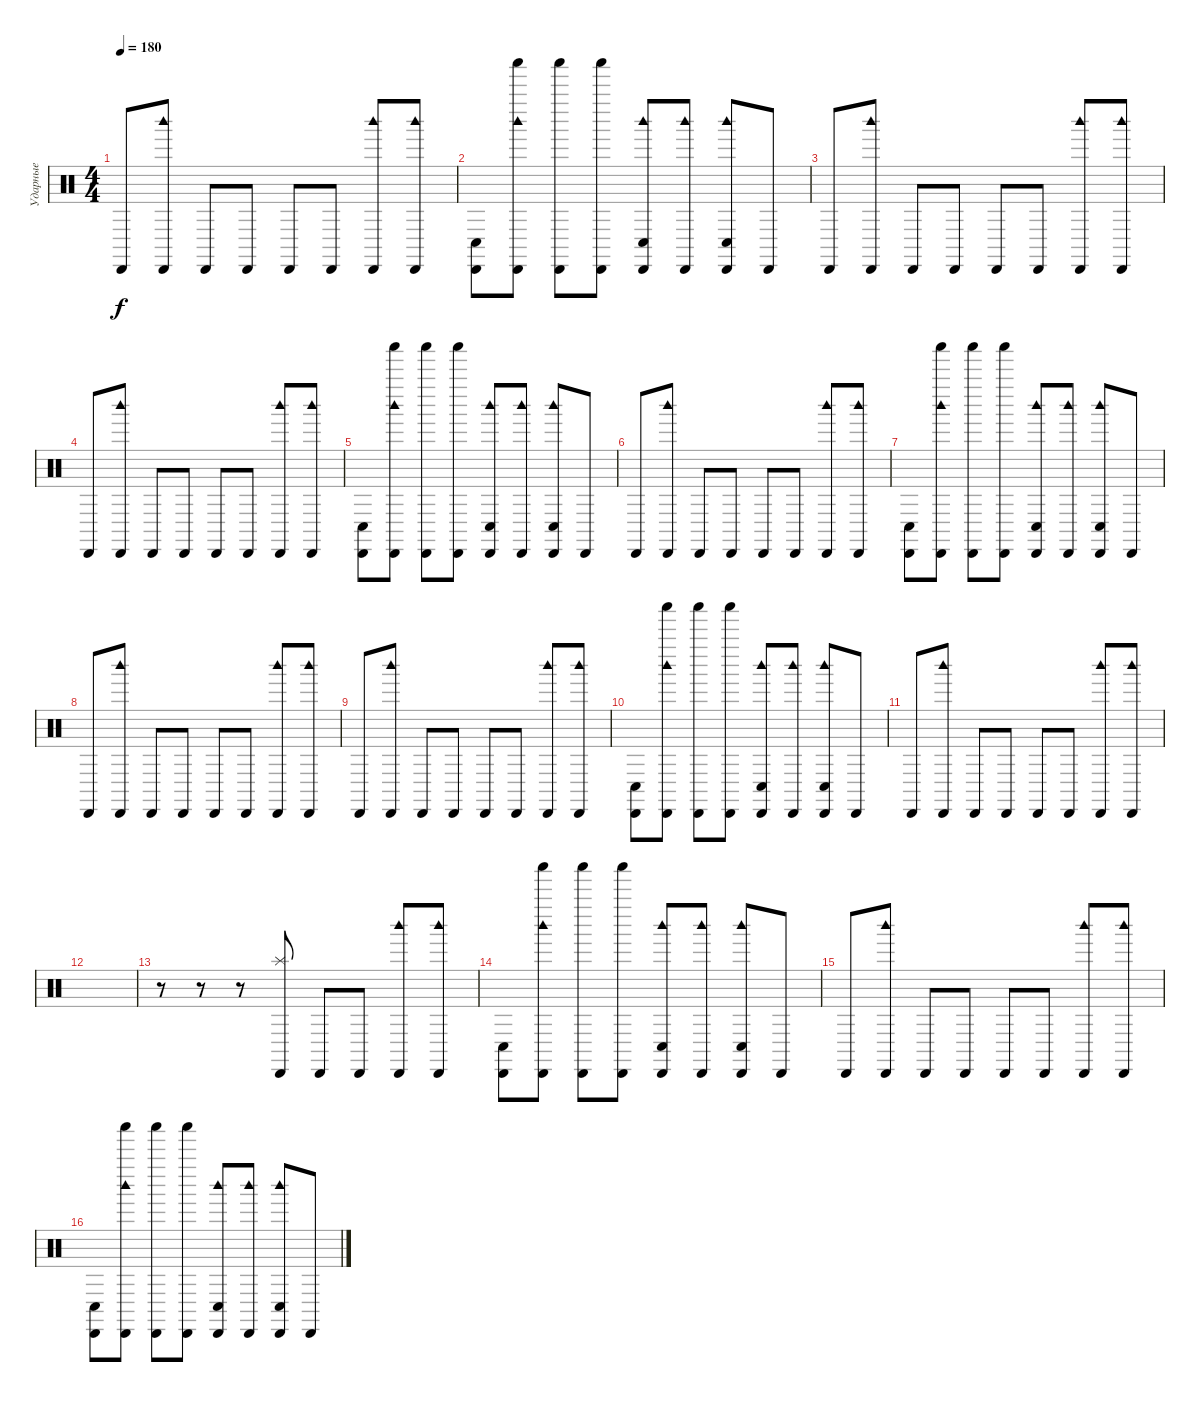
\track ("Ударные" "Ударные") {instrument percussion}
\staff {score}
\articulation defaults
\ts (4 4)
\tempo 180
\clef neutral
\ks c "Cabasa (hit)".8{dy f}
("Woodblock high (hit)" "Cabasa (hit)").8 "Cabasa (hit)".8 "Cabasa (hit)".8 "Cabasa (hit)".8 "Cabasa (hit)".8 ("Woodblock high (hit)" "Cabasa (hit)").8 ("Woodblock high (hit)" "Cabasa (hit)").8 |
("Cabasa (hit)" "Conga low (hit)").8 ("Woodblock high (hit)" "Shaker (hit)" "Cabasa (hit)").8 ("Shaker (hit)" "Cabasa (hit)").8 ("Shaker (hit)" "Cabasa (hit)").8 ("Woodblock high (hit)" "Cabasa (hit)" "Conga low (hit)").8 ("Woodblock high (hit)" "Cabasa (hit)").8 ("Woodblock high (hit)" "Cabasa (hit)" "Conga low (hit)").8 "Cabasa (hit)".8 |
"Cabasa (hit)".8 ("Woodblock high (hit)" "Cabasa (hit)").8 "Cabasa (hit)".8 "Cabasa (hit)".8 "Cabasa (hit)".8 "Cabasa (hit)".8 ("Woodblock high (hit)" "Cabasa (hit)").8 ("Woodblock high (hit)" "Cabasa (hit)").8 |
"Cabasa (hit)".8 ("Woodblock high (hit)" "Cabasa (hit)").8 "Cabasa (hit)".8 "Cabasa (hit)".8 "Cabasa (hit)".8 "Cabasa (hit)".8 ("Woodblock high (hit)" "Cabasa (hit)").8 ("Woodblock high (hit)" "Cabasa (hit)").8 |
("Cabasa (hit)" "Conga low (hit)").8 ("Woodblock high (hit)" "Shaker (hit)" "Cabasa (hit)").8 ("Shaker (hit)" "Cabasa (hit)").8 ("Shaker (hit)" "Cabasa (hit)").8 ("Woodblock high (hit)" "Cabasa (hit)" "Conga low (hit)").8 ("Woodblock high (hit)" "Cabasa (hit)").8 ("Woodblock high (hit)" "Cabasa (hit)" "Conga low (hit)").8 "Cabasa (hit)".8 |
"Cabasa (hit)".8 ("Woodblock high (hit)" "Cabasa (hit)").8 "Cabasa (hit)".8 "Cabasa (hit)".8 "Cabasa (hit)".8 "Cabasa (hit)".8 ("Woodblock high (hit)" "Cabasa (hit)").8 ("Woodblock high (hit)" "Cabasa (hit)").8 |
("Cabasa (hit)" "Conga low (hit)").8 ("Woodblock high (hit)" "Shaker (hit)" "Cabasa (hit)").8 ("Shaker (hit)" "Cabasa (hit)").8 ("Shaker (hit)" "Cabasa (hit)").8 ("Woodblock high (hit)" "Cabasa (hit)" "Conga low (hit)").8 ("Woodblock high (hit)" "Cabasa (hit)").8 ("Woodblock high (hit)" "Cabasa (hit)" "Conga low (hit)").8 "Cabasa (hit)".8 |
"Cabasa (hit)".8 ("Woodblock high (hit)" "Cabasa (hit)").8 "Cabasa (hit)".8 "Cabasa (hit)".8 "Cabasa (hit)".8 "Cabasa (hit)".8 ("Woodblock high (hit)" "Cabasa (hit)").8 ("Woodblock high (hit)" "Cabasa (hit)").8 |
"Cabasa (hit)".8 ("Woodblock high (hit)" "Cabasa (hit)").8 "Cabasa (hit)".8 "Cabasa (hit)".8 "Cabasa (hit)".8 "Cabasa (hit)".8 ("Woodblock high (hit)" "Cabasa (hit)").8 ("Woodblock high (hit)" "Cabasa (hit)").8 |
("Cabasa (hit)" "Conga low (hit)").8 ("Woodblock high (hit)" "Shaker (hit)" "Cabasa (hit)").8 ("Shaker (hit)" "Cabasa (hit)").8 ("Shaker (hit)" "Cabasa (hit)").8 ("Woodblock high (hit)" "Cabasa (hit)" "Conga low (hit)").8 ("Woodblock high (hit)" "Cabasa (hit)").8 ("Woodblock high (hit)" "Cabasa (hit)" "Conga low (hit)").8 "Cabasa (hit)".8 |
"Cabasa (hit)".8 ("Woodblock high (hit)" "Cabasa (hit)").8 "Cabasa (hit)".8 "Cabasa (hit)".8 "Cabasa (hit)".8 "Cabasa (hit)".8 ("Woodblock high (hit)" "Cabasa (hit)").8 ("Woodblock high (hit)" "Cabasa (hit)").8 |
|
r.8 r.8 r.8 ("Cabasa (hit)" "Splash (hit)").8 "Cabasa (hit)".8 "Cabasa (hit)".8 ("Woodblock high (hit)" "Cabasa (hit)").8 ("Woodblock high (hit)" "Cabasa (hit)").8 |
("Cabasa (hit)" "Conga low (hit)").8 ("Woodblock high (hit)" "Shaker (hit)" "Cabasa (hit)").8 ("Shaker (hit)" "Cabasa (hit)").8 ("Shaker (hit)" "Cabasa (hit)").8 ("Woodblock high (hit)" "Cabasa (hit)" "Conga low (hit)").8 ("Woodblock high (hit)" "Cabasa (hit)").8 ("Woodblock high (hit)" "Cabasa (hit)" "Conga low (hit)").8 "Cabasa (hit)".8 |
"Cabasa (hit)".8 ("Woodblock high (hit)" "Cabasa (hit)").8 "Cabasa (hit)".8 "Cabasa (hit)".8 "Cabasa (hit)".8 "Cabasa (hit)".8 ("Woodblock high (hit)" "Cabasa (hit)").8 ("Woodblock high (hit)" "Cabasa (hit)").8 |
("Cabasa (hit)" "Conga low (hit)").8 ("Woodblock high (hit)" "Shaker (hit)" "Cabasa (hit)").8 ("Shaker (hit)" "Cabasa (hit)").8 ("Shaker (hit)" "Cabasa (hit)").8 ("Woodblock high (hit)" "Cabasa (hit)" "Conga low (hit)").8 ("Woodblock high (hit)" "Cabasa (hit)").8 ("Woodblock high (hit)" "Cabasa (hit)" "Conga low (hit)").8 "Cabasa (hit)".8
